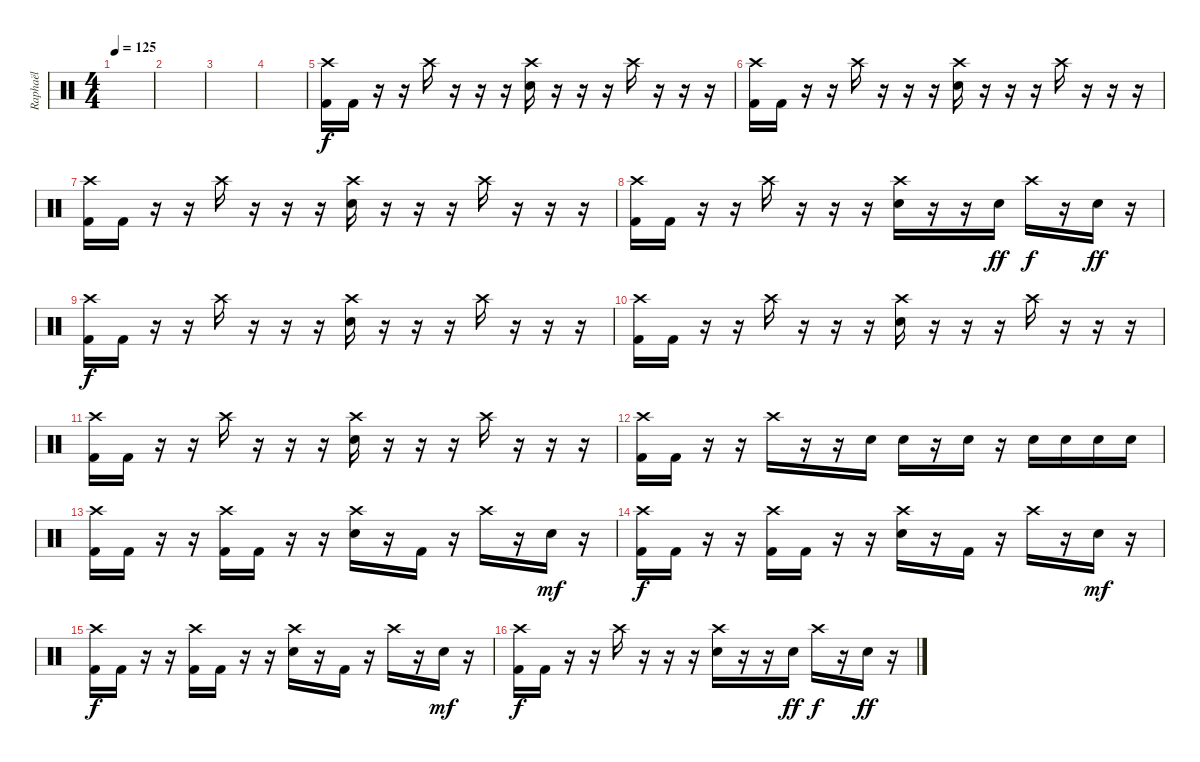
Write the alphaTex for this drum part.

\track ("Raphaël" "Raphaël") {instrument percussion}
\staff {score}
\articulation defaults
\ts (4 4)
\tempo 125
\clef neutral
\ks c
|
|
|
|
("Kick (hit) 2" "Crash high (hit)").16 "Kick (hit) 2".16 r.16 r.16 "Crash high (hit)".16 r.16 r.16 r.16 ("Electric Snare (hit)" "Crash high (hit)").16 r.16 r.16 r.16 "Crash high (hit)".16 r.16 r.16 r.16 |
("Kick (hit) 2" "Crash high (hit)").16 "Kick (hit) 2".16 r.16 r.16 "Crash high (hit)".16 r.16 r.16 r.16 ("Electric Snare (hit)" "Crash high (hit)").16 r.16 r.16 r.16 "Crash high (hit)".16 r.16 r.16 r.16 |
("Kick (hit) 2" "Crash high (hit)").16 "Kick (hit) 2".16 r.16 r.16 "Crash high (hit)".16 r.16 r.16 r.16 ("Electric Snare (hit)" "Crash high (hit)").16 r.16 r.16 r.16 "Crash high (hit)".16 r.16 r.16 r.16 |
("Kick (hit) 2" "Crash high (hit)").16 "Kick (hit) 2".16 r.16 r.16 "Crash high (hit)".16 r.16 r.16 r.16 ("Electric Snare (hit)" "Crash high (hit)").16 r.16 r.16 "Electric Snare (hit)".16{dy ff} "Crash high (hit)".16{dy f} r.16 "Electric Snare (hit)".16{dy ff} r.16 |
("Kick (hit) 2" "Crash high (hit)").16{dy f} "Kick (hit) 2".16 r.16 r.16 "Crash high (hit)".16 r.16 r.16 r.16 ("Electric Snare (hit)" "Crash high (hit)").16 r.16 r.16 r.16 "Crash high (hit)".16 r.16 r.16 r.16 |
("Kick (hit) 2" "Crash high (hit)").16 "Kick (hit) 2".16 r.16 r.16 "Crash high (hit)".16 r.16 r.16 r.16 ("Electric Snare (hit)" "Crash high (hit)").16 r.16 r.16 r.16 "Crash high (hit)".16 r.16 r.16 r.16 |
("Kick (hit) 2" "Crash high (hit)").16 "Kick (hit) 2".16 r.16 r.16 "Crash high (hit)".16 r.16 r.16 r.16 ("Electric Snare (hit)" "Crash high (hit)").16 r.16 r.16 r.16 "Crash high (hit)".16 r.16 r.16 r.16 |
("Kick (hit) 2" "Crash high (hit)").16 "Kick (hit) 2".16 r.16 r.16 "Crash high (hit)".16 r.16 r.16 "Electric Snare (hit)".16 "Electric Snare (hit)".16 r.16 "Electric Snare (hit)".16 r.16 "Electric Snare (hit)".16 "Electric Snare (hit)".16 "Electric Snare (hit)".16 "Electric Snare (hit)".16 |
("Kick (hit) 2" "Crash high (hit)").16 "Kick (hit) 2".16 r.16 r.16 ("Kick (hit) 2" "Crash high (hit)").16 "Kick (hit) 2".16 r.16 r.16 ("Electric Snare (hit)" "Crash high (hit)").16 r.16 "Kick (hit) 2".16 r.16 "Crash high (hit)".16 r.16 "Electric Snare (hit)".16{dy mf} r.16 |
("Kick (hit) 2" "Crash high (hit)").16{dy f} "Kick (hit) 2".16 r.16 r.16 ("Kick (hit) 2" "Crash high (hit)").16 "Kick (hit) 2".16 r.16 r.16 ("Electric Snare (hit)" "Crash high (hit)").16 r.16 "Kick (hit) 2".16 r.16 "Crash high (hit)".16 r.16 "Electric Snare (hit)".16{dy mf} r.16 |
("Kick (hit) 2" "Crash high (hit)").16{dy f} "Kick (hit) 2".16 r.16 r.16 ("Kick (hit) 2" "Crash high (hit)").16 "Kick (hit) 2".16 r.16 r.16 ("Electric Snare (hit)" "Crash high (hit)").16 r.16 "Kick (hit) 2".16 r.16 "Crash high (hit)".16 r.16 "Electric Snare (hit)".16{dy mf} r.16 |
("Kick (hit) 2" "Crash high (hit)").16{dy f} "Kick (hit) 2".16 r.16 r.16 "Crash high (hit)".16 r.16 r.16 r.16 ("Electric Snare (hit)" "Crash high (hit)").16 r.16 r.16 "Electric Snare (hit)".16{dy ff} "Crash high (hit)".16{dy f} r.16 "Electric Snare (hit)".16{dy ff} r.16
